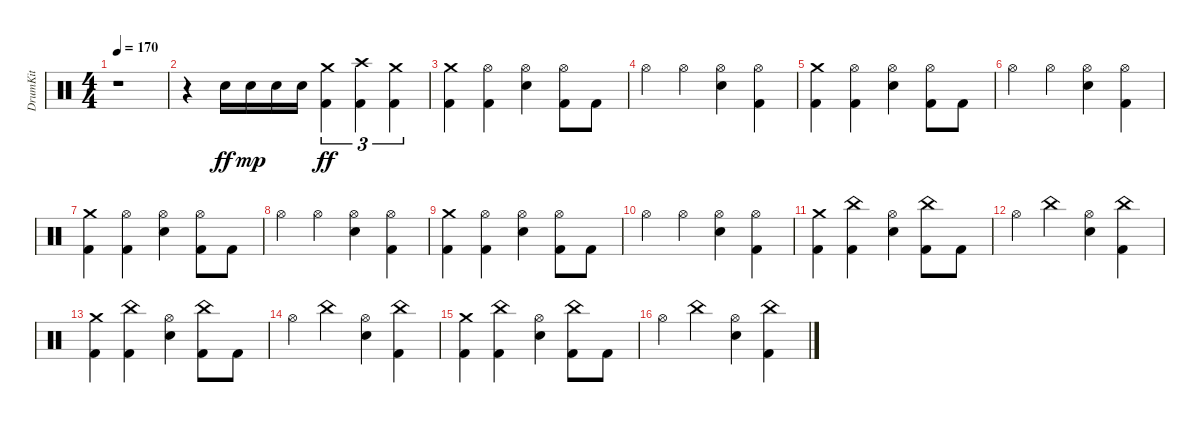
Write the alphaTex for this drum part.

\track ("DrumKit" "DrumKit") {instrument percussion}
\staff {score}
\articulation defaults
\ts (4 4)
\tempo 170
\clef neutral
\ks c
r.1{dy ff} |
r.4 "Snare (hit) 2".16 "Snare (hit) 2".16{dy mp} "Snare (hit) 2".16 "Snare (hit) 2".16 ("Kick (hit) 2" "Crash medium (hit)").4{tu (3 2) dy ff} ("Kick (hit) 2" "Crash high (hit)").4{tu (3 2)} ("Kick (hit) 2" "Crash medium (hit)").4{tu (3 2)} |
("Kick (hit) 2" "Crash medium (hit)").4 ("Kick (hit) 2" "Hi-Hat (open)").4 ("Snare (hit) 2" "Hi-Hat (open)").4 ("Kick (hit) 2" "Hi-Hat (open)").8 "Kick (hit) 2".8 |
"Hi-Hat (open)".4 "Hi-Hat (open)".4 ("Snare (hit) 2" "Hi-Hat (open)").4 ("Kick (hit) 2" "Hi-Hat (open)").4 |
("Kick (hit) 2" "Crash medium (hit)").4 ("Kick (hit) 2" "Hi-Hat (open)").4 ("Snare (hit) 2" "Hi-Hat (open)").4 ("Kick (hit) 2" "Hi-Hat (open)").8 "Kick (hit) 2".8 |
"Hi-Hat (open)".4 "Hi-Hat (open)".4 ("Snare (hit) 2" "Hi-Hat (open)").4 ("Kick (hit) 2" "Hi-Hat (open)").4 |
("Kick (hit) 2" "Crash medium (hit)").4 ("Kick (hit) 2" "Hi-Hat (open)").4 ("Snare (hit) 2" "Hi-Hat (open)").4 ("Kick (hit) 2" "Hi-Hat (open)").8 "Kick (hit) 2".8 |
"Hi-Hat (open)".4 "Hi-Hat (open)".4 ("Snare (hit) 2" "Hi-Hat (open)").4 ("Kick (hit) 2" "Hi-Hat (open)").4 |
("Kick (hit) 2" "Crash medium (hit)").4 ("Kick (hit) 2" "Hi-Hat (open)").4 ("Snare (hit) 2" "Hi-Hat (open)").4 ("Kick (hit) 2" "Hi-Hat (open)").8 "Kick (hit) 2".8 |
"Hi-Hat (open)".4 "Hi-Hat (open)".4 ("Snare (hit) 2" "Hi-Hat (open)").4 ("Kick (hit) 2" "Hi-Hat (open)").4 |
("Kick (hit) 2" "Crash medium (hit)").4 ("Kick (hit) 2" "China (hit)").4 ("Snare (hit) 2" "Hi-Hat (open)").4 ("Kick (hit) 2" "China (hit)").8 "Kick (hit) 2".8 |
"Hi-Hat (open)".4 "China (hit)".4 ("Snare (hit) 2" "Hi-Hat (open)").4 ("Kick (hit) 2" "China (hit)").4 |
("Kick (hit) 2" "Crash medium (hit)").4 ("Kick (hit) 2" "China (hit)").4 ("Snare (hit) 2" "Hi-Hat (open)").4 ("Kick (hit) 2" "China (hit)").8 "Kick (hit) 2".8 |
"Hi-Hat (open)".4 "China (hit)".4 ("Snare (hit) 2" "Hi-Hat (open)").4 ("Kick (hit) 2" "China (hit)").4 |
("Kick (hit) 2" "Crash medium (hit)").4 ("Kick (hit) 2" "China (hit)").4 ("Snare (hit) 2" "Hi-Hat (open)").4 ("Kick (hit) 2" "China (hit)").8 "Kick (hit) 2".8 |
"Hi-Hat (open)".4 "China (hit)".4 ("Snare (hit) 2" "Hi-Hat (open)").4 ("Kick (hit) 2" "China (hit)").4
